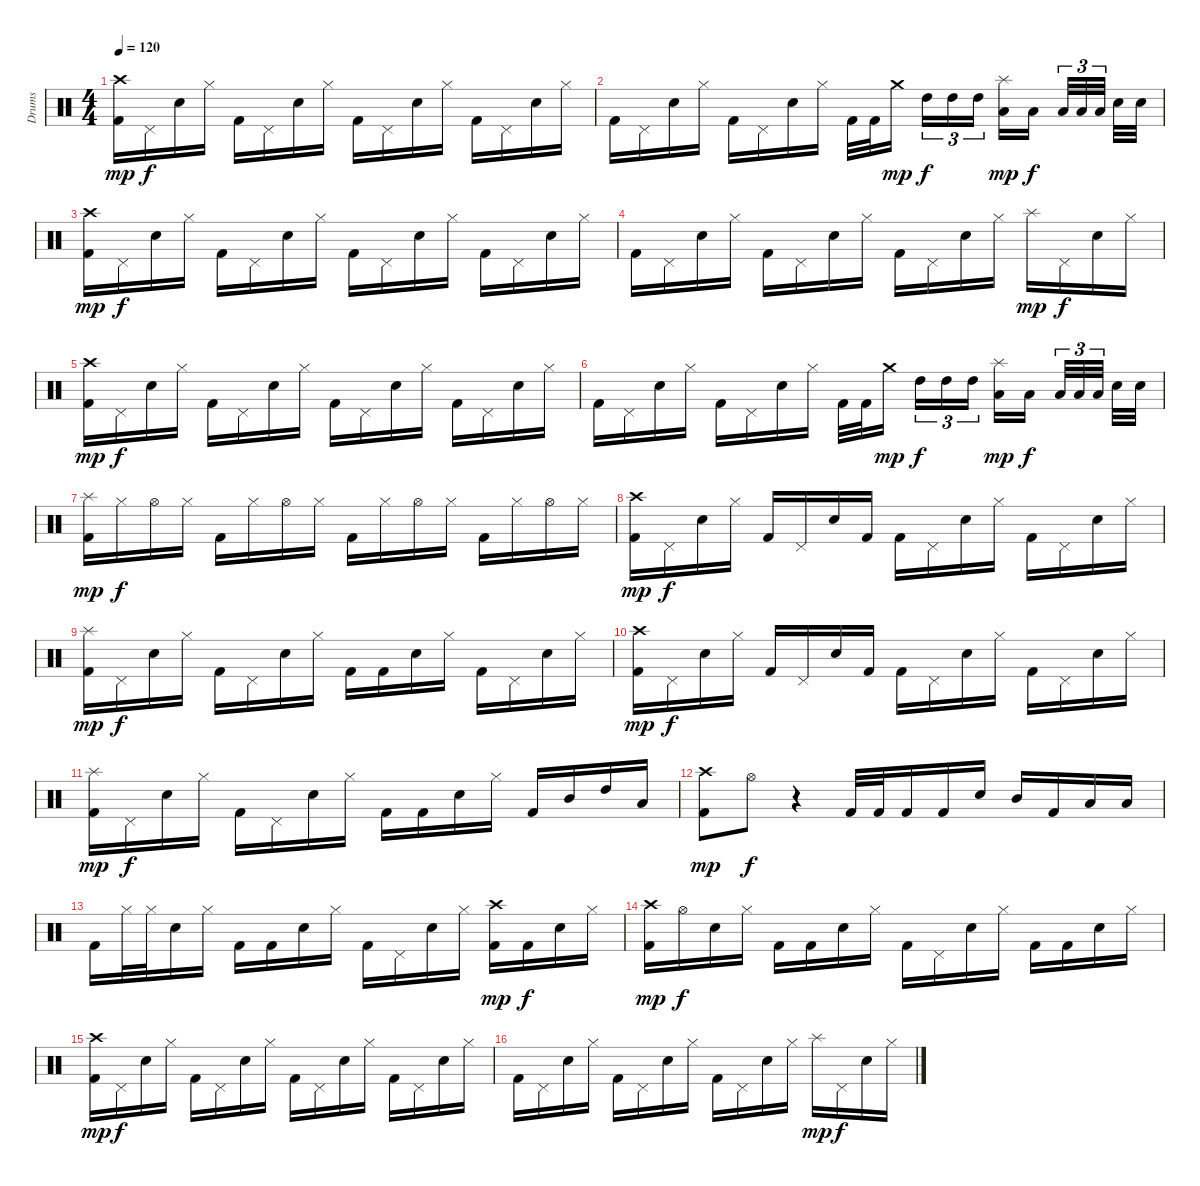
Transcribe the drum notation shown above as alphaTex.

\track ("Drums" "Drums") {instrument percussion}
\staff {score}
\articulation defaults
\ts (4 4)
\tempo 120
\clef neutral
\ks c
("Kick (hit) 2" "Crash high (hit)").16{dy mp} "Pedal Hi-Hat (hit)".16{dy f} "Electric Snare (hit)".16 "Hi-Hat (closed)".16 "Kick (hit) 2".16 "Pedal Hi-Hat (hit)".16 "Electric Snare (hit)".16 "Hi-Hat (closed)".16 "Kick (hit) 2".16 "Pedal Hi-Hat (hit)".16 "Electric Snare (hit)".16 "Hi-Hat (closed)".16 "Kick (hit) 2".16 "Pedal Hi-Hat (hit)".16 "Electric Snare (hit)".16 "Hi-Hat (closed)".16 |
"Kick (hit) 2".16 "Pedal Hi-Hat (hit)".16 "Electric Snare (hit)".16 "Hi-Hat (closed)".16 "Kick (hit) 2".16 "Pedal Hi-Hat (hit)".16 "Electric Snare (hit)".16 "Hi-Hat (closed)".16 "Kick (hit) 2".32 "Kick (hit) 2".32 "Crash medium (hit)".16{dy mp} "High Tom (hit)".16{tu (3 2) dy f} "High Tom (hit)".16{tu (3 2)} "High Tom (hit)".16{tu (3 2)} ("Low Tom (hit)" "Splash (hit)").16{dy mp} "Low Tom (hit)".16{dy f} "Low Floor Tom (hit)".32{tu (3 2)} "Low Floor Tom (hit)".32{tu (3 2)} "Low Floor Tom (hit)".32{tu (3 2)} "Electric Snare (hit)".32 "Electric Snare (hit)".32 |
("Kick (hit) 2" "Crash high (hit)").16{dy mp} "Pedal Hi-Hat (hit)".16{dy f} "Electric Snare (hit)".16 "Hi-Hat (closed)".16 "Kick (hit) 2".16 "Pedal Hi-Hat (hit)".16 "Electric Snare (hit)".16 "Hi-Hat (closed)".16 "Kick (hit) 2".16 "Pedal Hi-Hat (hit)".16 "Electric Snare (hit)".16 "Hi-Hat (closed)".16 "Kick (hit) 2".16 "Pedal Hi-Hat (hit)".16 "Electric Snare (hit)".16 "Hi-Hat (closed)".16 |
"Kick (hit) 2".16 "Pedal Hi-Hat (hit)".16 "Electric Snare (hit)".16 "Hi-Hat (closed)".16 "Kick (hit) 2".16 "Pedal Hi-Hat (hit)".16 "Electric Snare (hit)".16 "Hi-Hat (closed)".16 "Kick (hit) 2".16 "Pedal Hi-Hat (hit)".16 "Electric Snare (hit)".16 "Hi-Hat (closed)".16 "Splash (hit)".16{dy mp} "Pedal Hi-Hat (hit)".16{dy f} "Electric Snare (hit)".16 "Hi-Hat (closed)".16 |
("Kick (hit) 2" "Crash high (hit)").16{dy mp} "Pedal Hi-Hat (hit)".16{dy f} "Electric Snare (hit)".16 "Hi-Hat (closed)".16 "Kick (hit) 2".16 "Pedal Hi-Hat (hit)".16 "Electric Snare (hit)".16 "Hi-Hat (closed)".16 "Kick (hit) 2".16 "Pedal Hi-Hat (hit)".16 "Electric Snare (hit)".16 "Hi-Hat (closed)".16 "Kick (hit) 2".16 "Pedal Hi-Hat (hit)".16 "Electric Snare (hit)".16 "Hi-Hat (closed)".16 |
"Kick (hit) 2".16 "Pedal Hi-Hat (hit)".16 "Electric Snare (hit)".16 "Hi-Hat (closed)".16 "Kick (hit) 2".16 "Pedal Hi-Hat (hit)".16 "Electric Snare (hit)".16 "Hi-Hat (closed)".16 "Kick (hit) 2".32 "Kick (hit) 2".32 "Crash medium (hit)".16{dy mp} "High Tom (hit)".16{tu (3 2) dy f} "High Tom (hit)".16{tu (3 2)} "High Tom (hit)".16{tu (3 2)} ("Low Tom (hit)" "Splash (hit)").16{dy mp} "Low Tom (hit)".16{dy f} "Low Floor Tom (hit)".32{tu (3 2)} "Low Floor Tom (hit)".32{tu (3 2)} "Low Floor Tom (hit)".32{tu (3 2)} "Electric Snare (hit)".32 "Electric Snare (hit)".32 |
("Kick (hit) 2" "Splash (hit)").16{dy mp} "Hi-Hat (closed)".16{dy f} "Hi-Hat (open)".16 "Hi-Hat (closed)".16 "Kick (hit) 2".16 "Hi-Hat (closed)".16 "Hi-Hat (open)".16 "Hi-Hat (closed)".16 "Kick (hit) 2".16 "Hi-Hat (closed)".16 "Hi-Hat (open)".16 "Hi-Hat (closed)".16 "Kick (hit) 2".16 "Hi-Hat (closed)".16 "Hi-Hat (open)".16 "Hi-Hat (closed)".16 |
("Kick (hit) 2" "Crash high (hit)").16{dy mp} "Pedal Hi-Hat (hit)".16{dy f} "Electric Snare (hit)".16 "Hi-Hat (closed)".16 "Kick (hit) 2".16 "Pedal Hi-Hat (hit)".16 "Electric Snare (hit)".16 "Kick (hit) 2".16 "Kick (hit) 2".16 "Pedal Hi-Hat (hit)".16 "Electric Snare (hit)".16 "Hi-Hat (closed)".16 "Kick (hit) 2".16 "Pedal Hi-Hat (hit)".16 "Electric Snare (hit)".16 "Hi-Hat (closed)".16 |
("Kick (hit) 2" "Splash (hit)").16{dy mp} "Pedal Hi-Hat (hit)".16{dy f} "Electric Snare (hit)".16 "Hi-Hat (closed)".16 "Kick (hit) 2".16 "Pedal Hi-Hat (hit)".16 "Electric Snare (hit)".16 "Hi-Hat (closed)".16 "Kick (hit) 2".16 "Kick (hit) 2".16 "Electric Snare (hit)".16 "Hi-Hat (closed)".16 "Kick (hit) 2".16 "Pedal Hi-Hat (hit)".16 "Electric Snare (hit)".16 "Hi-Hat (closed)".16 |
("Kick (hit) 2" "Crash high (hit)").16{dy mp} "Pedal Hi-Hat (hit)".16{dy f} "Electric Snare (hit)".16 "Hi-Hat (closed)".16 "Kick (hit) 2".16 "Pedal Hi-Hat (hit)".16 "Electric Snare (hit)".16 "Kick (hit) 2".16 "Kick (hit) 2".16 "Pedal Hi-Hat (hit)".16 "Electric Snare (hit)".16 "Hi-Hat (closed)".16 "Kick (hit) 2".16 "Pedal Hi-Hat (hit)".16 "Electric Snare (hit)".16 "Hi-Hat (closed)".16 |
("Kick (hit) 2" "Splash (hit)").16{dy mp} "Pedal Hi-Hat (hit)".16{dy f} "Electric Snare (hit)".16 "Hi-Hat (closed)".16 "Kick (hit) 2".16 "Pedal Hi-Hat (hit)".16 "Electric Snare (hit)".16 "Hi-Hat (closed)".16 "Kick (hit) 2".16 "Kick (hit) 2".16 "Electric Snare (hit)".16 "Hi-Hat (closed)".16 "Kick (hit) 2".16 "Mid Tom (hit)".16 "High Tom (hit)".16 "Low Tom (hit)".16 |
("Kick (hit) 2" "Crash high (hit)").8{dy mp} "Hi-Hat (open)".8{dy f} r.4 "Kick (hit) 2".32 "Kick (hit) 2".32 "Kick (hit) 2".16 "Kick (hit) 2".16 "Electric Snare (hit)".16 "Mid Tom (hit)".16 "Kick (hit) 2".16 "Low Tom (hit)".16 "Low Tom (hit)".16 |
"Kick (hit) 2".16 "Hi-Hat (closed)".32 "Hi-Hat (closed)".32 "Electric Snare (hit)".16 "Hi-Hat (closed)".16 "Kick (hit) 2".16 "Kick (hit) 2".16 "Electric Snare (hit)".16 "Hi-Hat (closed)".16 "Kick (hit) 2".16 "Pedal Hi-Hat (hit)".16 "Electric Snare (hit)".16 "Hi-Hat (closed)".16 ("Kick (hit) 2" "Crash high (hit)").16{dy mp} "Kick (hit) 2".16{dy f} "Electric Snare (hit)".16 "Hi-Hat (closed)".16 |
("Kick (hit) 2" "Crash high (hit)").16{dy mp} "Hi-Hat (open)".16{dy f} "Electric Snare (hit)".16 "Hi-Hat (closed)".16 "Kick (hit) 2".16 "Kick (hit) 2".16 "Electric Snare (hit)".16 "Hi-Hat (closed)".16 "Kick (hit) 2".16 "Pedal Hi-Hat (hit)".16 "Electric Snare (hit)".16 "Hi-Hat (closed)".16 "Kick (hit) 2".16 "Kick (hit) 2".16 "Electric Snare (hit)".16 "Hi-Hat (closed)".16 |
("Kick (hit) 2" "Crash high (hit)").16{dy mp} "Pedal Hi-Hat (hit)".16{dy f} "Electric Snare (hit)".16 "Hi-Hat (closed)".16 "Kick (hit) 2".16 "Pedal Hi-Hat (hit)".16 "Electric Snare (hit)".16 "Hi-Hat (closed)".16 "Kick (hit) 2".16 "Pedal Hi-Hat (hit)".16 "Electric Snare (hit)".16 "Hi-Hat (closed)".16 "Kick (hit) 2".16 "Pedal Hi-Hat (hit)".16 "Electric Snare (hit)".16 "Hi-Hat (closed)".16 |
"Kick (hit) 2".16 "Pedal Hi-Hat (hit)".16 "Electric Snare (hit)".16 "Hi-Hat (closed)".16 "Kick (hit) 2".16 "Pedal Hi-Hat (hit)".16 "Electric Snare (hit)".16 "Hi-Hat (closed)".16 "Kick (hit) 2".16 "Pedal Hi-Hat (hit)".16 "Electric Snare (hit)".16 "Hi-Hat (closed)".16 "Splash (hit)".16{dy mp} "Pedal Hi-Hat (hit)".16{dy f} "Electric Snare (hit)".16 "Hi-Hat (closed)".16
